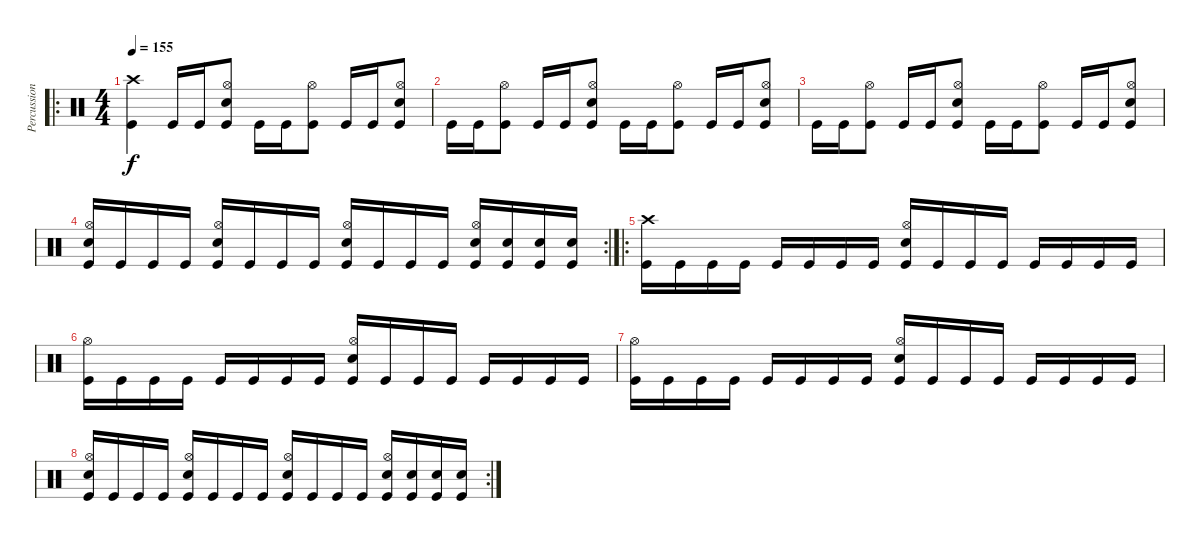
\track ("Percussion" "Percussion") {instrument percussion}
\staff {score}
\articulation defaults
\ro
\ts (4 4)
\tempo 155
\clef neutral
\ks c
("Crash high (hit)" "Kick (hit)").4{dy f} "Kick (hit)".16 "Kick (hit)".16 ("Hi-Hat (open)" "Electric Snare (hit)" "Kick (hit)").8 "Kick (hit)".16 "Kick (hit)".16 ("Hi-Hat (open)" "Kick (hit)").8 "Kick (hit)".16 "Kick (hit)".16 ("Hi-Hat (open)" "Electric Snare (hit)" "Kick (hit)").8 |
"Kick (hit)".16 "Kick (hit)".16 ("Hi-Hat (open)" "Kick (hit)").8 "Kick (hit)".16 "Kick (hit)".16 ("Hi-Hat (open)" "Electric Snare (hit)" "Kick (hit)").8 "Kick (hit)".16 "Kick (hit)".16 ("Hi-Hat (open)" "Kick (hit)").8 "Kick (hit)".16 "Kick (hit)".16 ("Hi-Hat (open)" "Electric Snare (hit)" "Kick (hit)").8 |
"Kick (hit)".16 "Kick (hit)".16 ("Hi-Hat (open)" "Kick (hit)").8 "Kick (hit)".16 "Kick (hit)".16 ("Hi-Hat (open)" "Electric Snare (hit)" "Kick (hit)").8 "Kick (hit)".16 "Kick (hit)".16 ("Hi-Hat (open)" "Kick (hit)").8 "Kick (hit)".16 "Kick (hit)".16 ("Hi-Hat (open)" "Electric Snare (hit)" "Kick (hit)").8 |
\rc 2
("Hi-Hat (open)" "Electric Snare (hit)" "Kick (hit)").16 "Kick (hit)".16 "Kick (hit)".16 "Kick (hit)".16 ("Hi-Hat (open)" "Electric Snare (hit)" "Kick (hit)").16 "Kick (hit)".16 "Kick (hit)".16 "Kick (hit)".16 ("Hi-Hat (open)" "Electric Snare (hit)" "Kick (hit)").16 "Kick (hit)".16 "Kick (hit)".16 "Kick (hit)".16 ("Hi-Hat (open)" "Electric Snare (hit)" "Kick (hit)").16 ("Electric Snare (hit)" "Kick (hit)").16 ("Electric Snare (hit)" "Kick (hit)").16 ("Electric Snare (hit)" "Kick (hit)").16 |
\ro
("Crash high (hit)" "Kick (hit)").16 "Kick (hit)".16 "Kick (hit)".16 "Kick (hit)".16 "Kick (hit)".16 "Kick (hit)".16 "Kick (hit)".16 "Kick (hit)".16 ("Hi-Hat (open)" "Electric Snare (hit)" "Kick (hit)").16 "Kick (hit)".16 "Kick (hit)".16 "Kick (hit)".16 "Kick (hit)".16 "Kick (hit)".16 "Kick (hit)".16 "Kick (hit)".16 |
("Hi-Hat (open)" "Kick (hit)").16 "Kick (hit)".16 "Kick (hit)".16 "Kick (hit)".16 "Kick (hit)".16 "Kick (hit)".16 "Kick (hit)".16 "Kick (hit)".16 ("Hi-Hat (open)" "Electric Snare (hit)" "Kick (hit)").16 "Kick (hit)".16 "Kick (hit)".16 "Kick (hit)".16 "Kick (hit)".16 "Kick (hit)".16 "Kick (hit)".16 "Kick (hit)".16 |
("Hi-Hat (open)" "Kick (hit)").16 "Kick (hit)".16 "Kick (hit)".16 "Kick (hit)".16 "Kick (hit)".16 "Kick (hit)".16 "Kick (hit)".16 "Kick (hit)".16 ("Hi-Hat (open)" "Electric Snare (hit)" "Kick (hit)").16 "Kick (hit)".16 "Kick (hit)".16 "Kick (hit)".16 "Kick (hit)".16 "Kick (hit)".16 "Kick (hit)".16 "Kick (hit)".16 |
\rc 2
("Hi-Hat (open)" "Electric Snare (hit)" "Kick (hit)").16 "Kick (hit)".16 "Kick (hit)".16 "Kick (hit)".16 ("Hi-Hat (open)" "Electric Snare (hit)" "Kick (hit)").16 "Kick (hit)".16 "Kick (hit)".16 "Kick (hit)".16 ("Hi-Hat (open)" "Electric Snare (hit)" "Kick (hit)").16 "Kick (hit)".16 "Kick (hit)".16 "Kick (hit)".16 ("Hi-Hat (open)" "Electric Snare (hit)" "Kick (hit)").16 ("Electric Snare (hit)" "Kick (hit)").16 ("Electric Snare (hit)" "Kick (hit)").16 ("Electric Snare (hit)" "Kick (hit)").16
